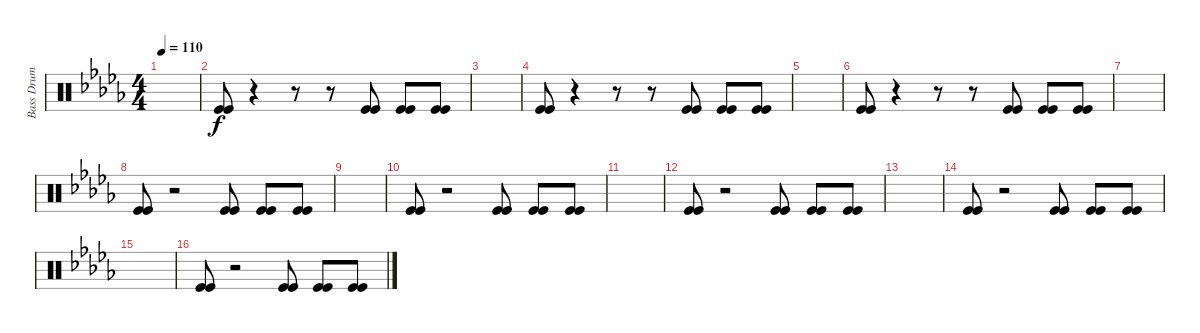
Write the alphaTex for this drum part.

\track ("Bass Drum" "Bass Drum") {instrument percussion}
\staff {score}
\articulation defaults
\ts (4 4)
\tempo 110
\clef neutral
\ks db
|
("Kick (hit)" "Kick (hit)").8 r.4 r.8 r.8 ("Kick (hit)" "Kick (hit)").8 ("Kick (hit)" "Kick (hit)").8 ("Kick (hit)" "Kick (hit)").8 |
|
("Kick (hit)" "Kick (hit)").8 r.4 r.8 r.8 ("Kick (hit)" "Kick (hit)").8 ("Kick (hit)" "Kick (hit)").8 ("Kick (hit)" "Kick (hit)").8 |
|
("Kick (hit)" "Kick (hit)").8 r.4 r.8 r.8 ("Kick (hit)" "Kick (hit)").8 ("Kick (hit)" "Kick (hit)").8 ("Kick (hit)" "Kick (hit)").8 |
|
("Kick (hit)" "Kick (hit)").8 r.2 ("Kick (hit)" "Kick (hit)").8 ("Kick (hit)" "Kick (hit)").8 ("Kick (hit)" "Kick (hit)").8 |
|
("Kick (hit)" "Kick (hit)").8 r.2 ("Kick (hit)" "Kick (hit)").8 ("Kick (hit)" "Kick (hit)").8 ("Kick (hit)" "Kick (hit)").8 |
|
("Kick (hit)" "Kick (hit)").8 r.2 ("Kick (hit)" "Kick (hit)").8 ("Kick (hit)" "Kick (hit)").8 ("Kick (hit)" "Kick (hit)").8 |
|
("Kick (hit)" "Kick (hit)").8 r.2 ("Kick (hit)" "Kick (hit)").8 ("Kick (hit)" "Kick (hit)").8 ("Kick (hit)" "Kick (hit)").8 |
|
("Kick (hit)" "Kick (hit)").8 r.2 ("Kick (hit)" "Kick (hit)").8 ("Kick (hit)" "Kick (hit)").8 ("Kick (hit)" "Kick (hit)").8
